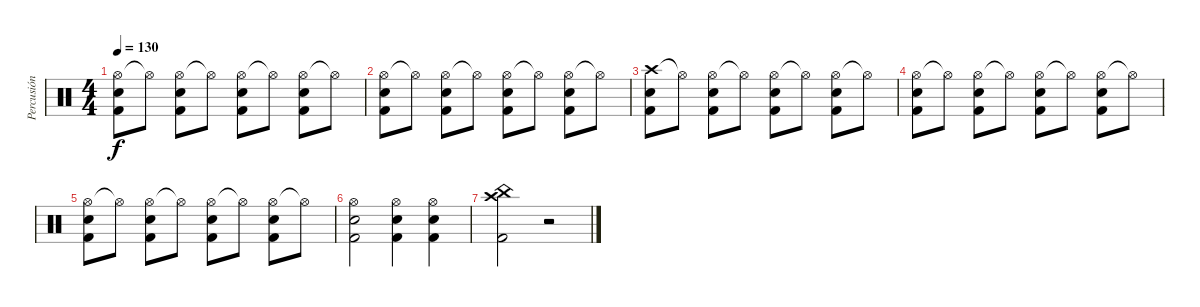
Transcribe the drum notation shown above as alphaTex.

\track ("Percusión" "Percusión") {instrument percussion}
\staff {score}
\articulation defaults
\ts (4 4)
\tempo 130
\clef neutral
\ks c
("Hi-Hat (open)" "Snare (hit) 2" "Kick (hit) 2").8{dy f} "Hi-Hat (open)"{t}.8 ("Hi-Hat (open)" "Snare (hit) 2" "Kick (hit) 2").8 "Hi-Hat (open)"{t}.8 ("Hi-Hat (open)" "Snare (hit) 2" "Kick (hit) 2").8 "Hi-Hat (open)"{t}.8 ("Hi-Hat (open)" "Snare (hit) 2" "Kick (hit) 2").8 "Hi-Hat (open)"{t}.8 |
("Hi-Hat (open)" "Snare (hit) 2" "Kick (hit) 2").8 "Hi-Hat (open)"{t}.8 ("Hi-Hat (open)" "Snare (hit) 2" "Kick (hit) 2").8 "Hi-Hat (open)"{t}.8 ("Hi-Hat (open)" "Snare (hit) 2" "Kick (hit) 2").8 "Hi-Hat (open)"{t}.8 ("Hi-Hat (open)" "Snare (hit) 2" "Kick (hit) 2").8 "Hi-Hat (open)"{t}.8 |
("Crash high (hit)" "Snare (hit) 2" "Kick (hit) 2").8 "Hi-Hat (open)"{t}.8 ("Hi-Hat (open)" "Snare (hit) 2" "Kick (hit) 2").8 "Hi-Hat (open)"{t}.8 ("Hi-Hat (open)" "Snare (hit) 2" "Kick (hit) 2").8 "Hi-Hat (open)"{t}.8 ("Hi-Hat (open)" "Snare (hit) 2" "Kick (hit) 2").8 "Hi-Hat (open)"{t}.8 |
("Hi-Hat (open)" "Snare (hit) 2" "Kick (hit) 2").8 "Hi-Hat (open)"{t}.8 ("Hi-Hat (open)" "Snare (hit) 2" "Kick (hit) 2").8 "Hi-Hat (open)"{t}.8 ("Hi-Hat (open)" "Snare (hit) 2" "Kick (hit) 2").8 "Hi-Hat (open)"{t}.8 ("Hi-Hat (open)" "Snare (hit) 2" "Kick (hit) 2").8 "Hi-Hat (open)"{t}.8 |
("Hi-Hat (open)" "Snare (hit) 2" "Kick (hit) 2").8 "Hi-Hat (open)"{t}.8 ("Hi-Hat (open)" "Snare (hit) 2" "Kick (hit) 2").8 "Hi-Hat (open)"{t}.8 ("Hi-Hat (open)" "Snare (hit) 2" "Kick (hit) 2").8 "Hi-Hat (open)"{t}.8 ("Hi-Hat (open)" "Snare (hit) 2" "Kick (hit) 2").8 "Hi-Hat (open)"{t}.8 |
("Hi-Hat (open)" "Snare (hit) 2" "Kick (hit) 2").2 ("Hi-Hat (open)" "Snare (hit) 2" "Kick (hit) 2").4 ("Hi-Hat (open)" "Snare (hit) 2" "Kick (hit) 2").4 |
("Crash high (hit)" "China (hit)" "Kick (hit) 2").2 r.2
